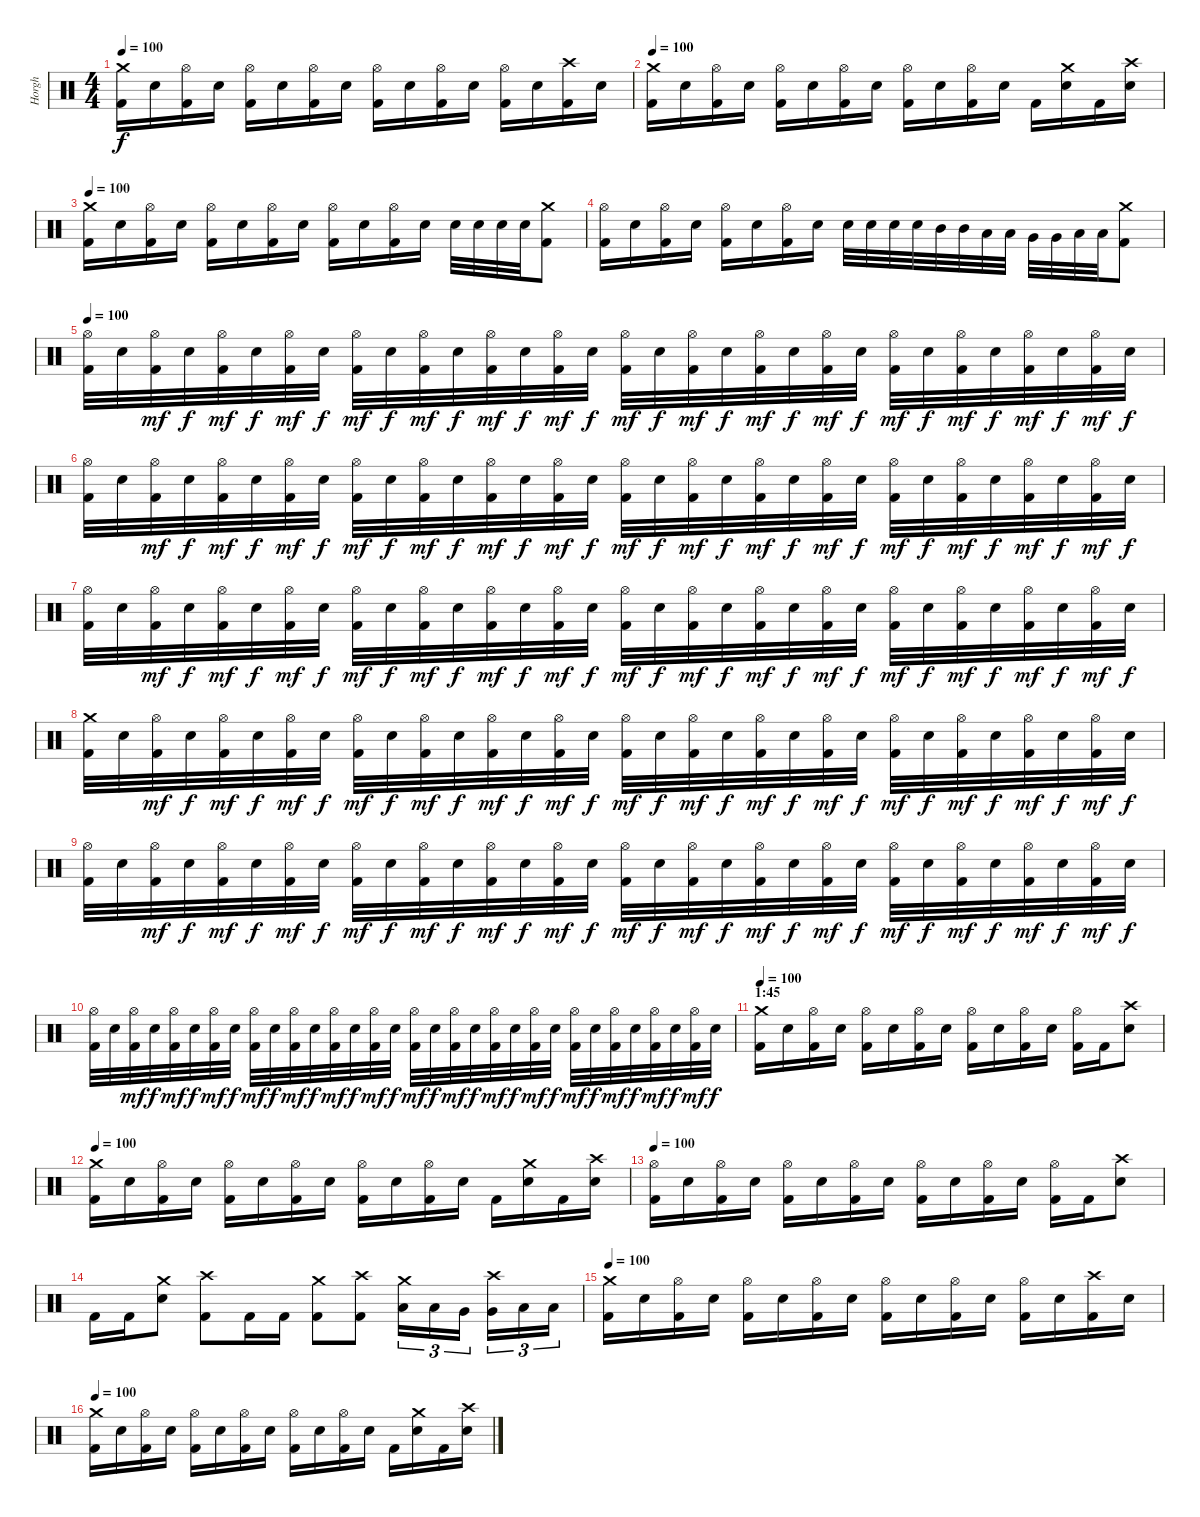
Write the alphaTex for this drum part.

\track ("Horgh" "Horgh") {instrument percussion}
\staff {score}
\articulation defaults
\ts (4 4)
\tempo 100
\clef neutral
\ks c
("Crash medium (hit)" "Kick (hit) 2").16{dy f} "Electric Snare (hit)".16 ("Hi-Hat (open)" "Kick (hit) 2").16 "Electric Snare (hit)".16 ("Hi-Hat (open)" "Kick (hit) 2").16 "Electric Snare (hit)".16 ("Hi-Hat (open)" "Kick (hit) 2").16 "Electric Snare (hit)".16 ("Hi-Hat (open)" "Kick (hit) 2").16 "Electric Snare (hit)".16 ("Hi-Hat (open)" "Kick (hit) 2").16 "Electric Snare (hit)".16 ("Hi-Hat (open)" "Kick (hit) 2").16 "Electric Snare (hit)".16 ("Crash high (hit)" "Kick (hit) 2").16 "Electric Snare (hit)".16 |
\tempo 100
("Crash medium (hit)" "Kick (hit) 2").16 "Electric Snare (hit)".16 ("Hi-Hat (open)" "Kick (hit) 2").16 "Electric Snare (hit)".16 ("Hi-Hat (open)" "Kick (hit) 2").16 "Electric Snare (hit)".16 ("Hi-Hat (open)" "Kick (hit) 2").16 "Electric Snare (hit)".16 ("Hi-Hat (open)" "Kick (hit) 2").16 "Electric Snare (hit)".16 ("Hi-Hat (open)" "Kick (hit) 2").16 "Electric Snare (hit)".16 "Kick (hit) 2".16 ("Crash medium (hit)" "Electric Snare (hit)").16 "Kick (hit) 2".16 ("Crash high (hit)" "Electric Snare (hit)").16 |
\tempo 100
("Crash medium (hit)" "Kick (hit) 2").16 "Electric Snare (hit)".16 ("Hi-Hat (open)" "Kick (hit) 2").16 "Electric Snare (hit)".16 ("Hi-Hat (open)" "Kick (hit) 2").16 "Electric Snare (hit)".16 ("Hi-Hat (open)" "Kick (hit) 2").16 "Electric Snare (hit)".16 ("Hi-Hat (open)" "Kick (hit) 2").16 "Electric Snare (hit)".16 ("Hi-Hat (open)" "Kick (hit) 2").16 "Electric Snare (hit)".16 "Electric Snare (hit)".32 "Electric Snare (hit)".32 "Electric Snare (hit)".32 "Electric Snare (hit)".32 ("Crash medium (hit)" "Kick (hit) 2").8 |
("Hi-Hat (open)" "Kick (hit) 2").16 "Electric Snare (hit)".16 ("Hi-Hat (open)" "Kick (hit) 2").16 "Electric Snare (hit)".16 ("Hi-Hat (open)" "Kick (hit) 2").16 "Electric Snare (hit)".16 ("Hi-Hat (open)" "Kick (hit) 2").16 "Electric Snare (hit)".16 "Electric Snare (hit)".32 "Electric Snare (hit)".32 "Electric Snare (hit)".32 "Electric Snare (hit)".32 "Mid Tom (hit)".32 "Mid Tom (hit)".32 "Low Tom (hit)".32 "Low Tom (hit)".32 "Very Low Tom (hit)".32 "Very Low Tom (hit)".32 "Low Floor Tom (hit)".32 "Low Floor Tom (hit)".32 ("Crash medium (hit)" "Kick (hit) 2").8 |
\tempo 100
("Hi-Hat (open)" "Kick (hit) 2").32 "Electric Snare (hit)".32 ("Hi-Hat (open)" "Kick (hit) 2").32{dy mf} "Electric Snare (hit)".32{dy f} ("Hi-Hat (open)" "Kick (hit) 2").32{dy mf} "Electric Snare (hit)".32{dy f} ("Hi-Hat (open)" "Kick (hit) 2").32{dy mf} "Electric Snare (hit)".32{dy f} ("Hi-Hat (open)" "Kick (hit) 2").32{dy mf} "Electric Snare (hit)".32{dy f} ("Hi-Hat (open)" "Kick (hit) 2").32{dy mf} "Electric Snare (hit)".32{dy f} ("Hi-Hat (open)" "Kick (hit) 2").32{dy mf} "Electric Snare (hit)".32{dy f} ("Hi-Hat (open)" "Kick (hit) 2").32{dy mf} "Electric Snare (hit)".32{dy f} ("Hi-Hat (open)" "Kick (hit) 2").32{dy mf} "Electric Snare (hit)".32{dy f} ("Hi-Hat (open)" "Kick (hit) 2").32{dy mf} "Electric Snare (hit)".32{dy f} ("Hi-Hat (open)" "Kick (hit) 2").32{dy mf} "Electric Snare (hit)".32{dy f} ("Hi-Hat (open)" "Kick (hit) 2").32{dy mf} "Electric Snare (hit)".32{dy f} ("Hi-Hat (open)" "Kick (hit) 2").32{dy mf} "Electric Snare (hit)".32{dy f} ("Hi-Hat (open)" "Kick (hit) 2").32{dy mf} "Electric Snare (hit)".32{dy f} ("Hi-Hat (open)" "Kick (hit) 2").32{dy mf} "Electric Snare (hit)".32{dy f} ("Hi-Hat (open)" "Kick (hit) 2").32{dy mf} "Electric Snare (hit)".32{dy f} |
("Hi-Hat (open)" "Kick (hit) 2").32 "Electric Snare (hit)".32 ("Hi-Hat (open)" "Kick (hit) 2").32{dy mf} "Electric Snare (hit)".32{dy f} ("Hi-Hat (open)" "Kick (hit) 2").32{dy mf} "Electric Snare (hit)".32{dy f} ("Hi-Hat (open)" "Kick (hit) 2").32{dy mf} "Electric Snare (hit)".32{dy f} ("Hi-Hat (open)" "Kick (hit) 2").32{dy mf} "Electric Snare (hit)".32{dy f} ("Hi-Hat (open)" "Kick (hit) 2").32{dy mf} "Electric Snare (hit)".32{dy f} ("Hi-Hat (open)" "Kick (hit) 2").32{dy mf} "Electric Snare (hit)".32{dy f} ("Hi-Hat (open)" "Kick (hit) 2").32{dy mf} "Electric Snare (hit)".32{dy f} ("Hi-Hat (open)" "Kick (hit) 2").32{dy mf} "Electric Snare (hit)".32{dy f} ("Hi-Hat (open)" "Kick (hit) 2").32{dy mf} "Electric Snare (hit)".32{dy f} ("Hi-Hat (open)" "Kick (hit) 2").32{dy mf} "Electric Snare (hit)".32{dy f} ("Hi-Hat (open)" "Kick (hit) 2").32{dy mf} "Electric Snare (hit)".32{dy f} ("Hi-Hat (open)" "Kick (hit) 2").32{dy mf} "Electric Snare (hit)".32{dy f} ("Hi-Hat (open)" "Kick (hit) 2").32{dy mf} "Electric Snare (hit)".32{dy f} ("Hi-Hat (open)" "Kick (hit) 2").32{dy mf} "Electric Snare (hit)".32{dy f} ("Hi-Hat (open)" "Kick (hit) 2").32{dy mf} "Electric Snare (hit)".32{dy f} |
("Hi-Hat (open)" "Kick (hit) 2").32 "Electric Snare (hit)".32 ("Hi-Hat (open)" "Kick (hit) 2").32{dy mf} "Electric Snare (hit)".32{dy f} ("Hi-Hat (open)" "Kick (hit) 2").32{dy mf} "Electric Snare (hit)".32{dy f} ("Hi-Hat (open)" "Kick (hit) 2").32{dy mf} "Electric Snare (hit)".32{dy f} ("Hi-Hat (open)" "Kick (hit) 2").32{dy mf} "Electric Snare (hit)".32{dy f} ("Hi-Hat (open)" "Kick (hit) 2").32{dy mf} "Electric Snare (hit)".32{dy f} ("Hi-Hat (open)" "Kick (hit) 2").32{dy mf} "Electric Snare (hit)".32{dy f} ("Hi-Hat (open)" "Kick (hit) 2").32{dy mf} "Electric Snare (hit)".32{dy f} ("Hi-Hat (open)" "Kick (hit) 2").32{dy mf} "Electric Snare (hit)".32{dy f} ("Hi-Hat (open)" "Kick (hit) 2").32{dy mf} "Electric Snare (hit)".32{dy f} ("Hi-Hat (open)" "Kick (hit) 2").32{dy mf} "Electric Snare (hit)".32{dy f} ("Hi-Hat (open)" "Kick (hit) 2").32{dy mf} "Electric Snare (hit)".32{dy f} ("Hi-Hat (open)" "Kick (hit) 2").32{dy mf} "Electric Snare (hit)".32{dy f} ("Hi-Hat (open)" "Kick (hit) 2").32{dy mf} "Electric Snare (hit)".32{dy f} ("Hi-Hat (open)" "Kick (hit) 2").32{dy mf} "Electric Snare (hit)".32{dy f} ("Hi-Hat (open)" "Kick (hit) 2").32{dy mf} "Electric Snare (hit)".32{dy f} |
("Crash medium (hit)" "Kick (hit) 2").32 "Electric Snare (hit)".32 ("Hi-Hat (open)" "Kick (hit) 2").32{dy mf} "Electric Snare (hit)".32{dy f} ("Hi-Hat (open)" "Kick (hit) 2").32{dy mf} "Electric Snare (hit)".32{dy f} ("Hi-Hat (open)" "Kick (hit) 2").32{dy mf} "Electric Snare (hit)".32{dy f} ("Hi-Hat (open)" "Kick (hit) 2").32{dy mf} "Electric Snare (hit)".32{dy f} ("Hi-Hat (open)" "Kick (hit) 2").32{dy mf} "Electric Snare (hit)".32{dy f} ("Hi-Hat (open)" "Kick (hit) 2").32{dy mf} "Electric Snare (hit)".32{dy f} ("Hi-Hat (open)" "Kick (hit) 2").32{dy mf} "Electric Snare (hit)".32{dy f} ("Hi-Hat (open)" "Kick (hit) 2").32{dy mf} "Electric Snare (hit)".32{dy f} ("Hi-Hat (open)" "Kick (hit) 2").32{dy mf} "Electric Snare (hit)".32{dy f} ("Hi-Hat (open)" "Kick (hit) 2").32{dy mf} "Electric Snare (hit)".32{dy f} ("Hi-Hat (open)" "Kick (hit) 2").32{dy mf} "Electric Snare (hit)".32{dy f} ("Hi-Hat (open)" "Kick (hit) 2").32{dy mf} "Electric Snare (hit)".32{dy f} ("Hi-Hat (open)" "Kick (hit) 2").32{dy mf} "Electric Snare (hit)".32{dy f} ("Hi-Hat (open)" "Kick (hit) 2").32{dy mf} "Electric Snare (hit)".32{dy f} ("Hi-Hat (open)" "Kick (hit) 2").32{dy mf} "Electric Snare (hit)".32{dy f} |
("Hi-Hat (open)" "Kick (hit) 2").32 "Electric Snare (hit)".32 ("Hi-Hat (open)" "Kick (hit) 2").32{dy mf} "Electric Snare (hit)".32{dy f} ("Hi-Hat (open)" "Kick (hit) 2").32{dy mf} "Electric Snare (hit)".32{dy f} ("Hi-Hat (open)" "Kick (hit) 2").32{dy mf} "Electric Snare (hit)".32{dy f} ("Hi-Hat (open)" "Kick (hit) 2").32{dy mf} "Electric Snare (hit)".32{dy f} ("Hi-Hat (open)" "Kick (hit) 2").32{dy mf} "Electric Snare (hit)".32{dy f} ("Hi-Hat (open)" "Kick (hit) 2").32{dy mf} "Electric Snare (hit)".32{dy f} ("Hi-Hat (open)" "Kick (hit) 2").32{dy mf} "Electric Snare (hit)".32{dy f} ("Hi-Hat (open)" "Kick (hit) 2").32{dy mf} "Electric Snare (hit)".32{dy f} ("Hi-Hat (open)" "Kick (hit) 2").32{dy mf} "Electric Snare (hit)".32{dy f} ("Hi-Hat (open)" "Kick (hit) 2").32{dy mf} "Electric Snare (hit)".32{dy f} ("Hi-Hat (open)" "Kick (hit) 2").32{dy mf} "Electric Snare (hit)".32{dy f} ("Hi-Hat (open)" "Kick (hit) 2").32{dy mf} "Electric Snare (hit)".32{dy f} ("Hi-Hat (open)" "Kick (hit) 2").32{dy mf} "Electric Snare (hit)".32{dy f} ("Hi-Hat (open)" "Kick (hit) 2").32{dy mf} "Electric Snare (hit)".32{dy f} ("Hi-Hat (open)" "Kick (hit) 2").32{dy mf} "Electric Snare (hit)".32{dy f} |
("Hi-Hat (open)" "Kick (hit) 2").32 "Electric Snare (hit)".32 ("Hi-Hat (open)" "Kick (hit) 2").32{dy mf} "Electric Snare (hit)".32{dy f} ("Hi-Hat (open)" "Kick (hit) 2").32{dy mf} "Electric Snare (hit)".32{dy f} ("Hi-Hat (open)" "Kick (hit) 2").32{dy mf} "Electric Snare (hit)".32{dy f} ("Hi-Hat (open)" "Kick (hit) 2").32{dy mf} "Electric Snare (hit)".32{dy f} ("Hi-Hat (open)" "Kick (hit) 2").32{dy mf} "Electric Snare (hit)".32{dy f} ("Hi-Hat (open)" "Kick (hit) 2").32{dy mf} "Electric Snare (hit)".32{dy f} ("Hi-Hat (open)" "Kick (hit) 2").32{dy mf} "Electric Snare (hit)".32{dy f} ("Hi-Hat (open)" "Kick (hit) 2").32{dy mf} "Electric Snare (hit)".32{dy f} ("Hi-Hat (open)" "Kick (hit) 2").32{dy mf} "Electric Snare (hit)".32{dy f} ("Hi-Hat (open)" "Kick (hit) 2").32{dy mf} "Electric Snare (hit)".32{dy f} ("Hi-Hat (open)" "Kick (hit) 2").32{dy mf} "Electric Snare (hit)".32{dy f} ("Hi-Hat (open)" "Kick (hit) 2").32{dy mf} "Electric Snare (hit)".32{dy f} ("Hi-Hat (open)" "Kick (hit) 2").32{dy mf} "Electric Snare (hit)".32{dy f} ("Hi-Hat (open)" "Kick (hit) 2").32{dy mf} "Electric Snare (hit)".32{dy f} ("Hi-Hat (open)" "Kick (hit) 2").32{dy mf} "Electric Snare (hit)".32{dy f} |
\section ("" "1:45")
\tempo 100
("Crash medium (hit)" "Kick (hit) 2").16 "Electric Snare (hit)".16 ("Hi-Hat (open)" "Kick (hit) 2").16 "Electric Snare (hit)".16 ("Hi-Hat (open)" "Kick (hit) 2").16 "Electric Snare (hit)".16 ("Hi-Hat (open)" "Kick (hit) 2").16 "Electric Snare (hit)".16 ("Hi-Hat (open)" "Kick (hit) 2").16 "Electric Snare (hit)".16 ("Hi-Hat (open)" "Kick (hit) 2").16 "Electric Snare (hit)".16 ("Hi-Hat (open)" "Kick (hit) 2").16 "Kick (hit) 2".16 ("Crash high (hit)" "Electric Snare (hit)").8 |
\tempo 100
("Crash medium (hit)" "Kick (hit) 2").16 "Electric Snare (hit)".16 ("Hi-Hat (open)" "Kick (hit) 2").16 "Electric Snare (hit)".16 ("Hi-Hat (open)" "Kick (hit) 2").16 "Electric Snare (hit)".16 ("Hi-Hat (open)" "Kick (hit) 2").16 "Electric Snare (hit)".16 ("Hi-Hat (open)" "Kick (hit) 2").16 "Electric Snare (hit)".16 ("Hi-Hat (open)" "Kick (hit) 2").16 "Electric Snare (hit)".16 "Kick (hit) 2".16 ("Crash medium (hit)" "Electric Snare (hit)").16 "Kick (hit) 2".16 ("Crash high (hit)" "Electric Snare (hit)").16 |
\tempo 100
("Hi-Hat (open)" "Kick (hit) 2").16 "Electric Snare (hit)".16 ("Hi-Hat (open)" "Kick (hit) 2").16 "Electric Snare (hit)".16 ("Hi-Hat (open)" "Kick (hit) 2").16 "Electric Snare (hit)".16 ("Hi-Hat (open)" "Kick (hit) 2").16 "Electric Snare (hit)".16 ("Hi-Hat (open)" "Kick (hit) 2").16 "Electric Snare (hit)".16 ("Hi-Hat (open)" "Kick (hit) 2").16 "Electric Snare (hit)".16 ("Hi-Hat (open)" "Kick (hit) 2").16 "Kick (hit) 2".16 ("Crash high (hit)" "Electric Snare (hit)").8 |
"Kick (hit) 2".16 "Kick (hit) 2".16 ("Crash medium (hit)" "Electric Snare (hit)").8 ("Crash high (hit)" "Kick (hit) 2").8 "Kick (hit) 2".16 "Kick (hit) 2".16 ("Crash medium (hit)" "Kick (hit) 2").8 ("Crash high (hit)" "Kick (hit) 2").8 ("Crash medium (hit)" "Low Tom (hit)").16{tu (3 2)} "Low Tom (hit)".16{tu (3 2)} "Very Low Tom (hit)".16{tu (3 2)} ("Crash high (hit)" "Very Low Tom (hit)").16{tu (3 2)} "Low Floor Tom (hit)".16{tu (3 2)} "Low Floor Tom (hit)".16{tu (3 2)} |
\tempo 100
("Crash medium (hit)" "Kick (hit) 2").16 "Electric Snare (hit)".16 ("Hi-Hat (open)" "Kick (hit) 2").16 "Electric Snare (hit)".16 ("Hi-Hat (open)" "Kick (hit) 2").16 "Electric Snare (hit)".16 ("Hi-Hat (open)" "Kick (hit) 2").16 "Electric Snare (hit)".16 ("Hi-Hat (open)" "Kick (hit) 2").16 "Electric Snare (hit)".16 ("Hi-Hat (open)" "Kick (hit) 2").16 "Electric Snare (hit)".16 ("Hi-Hat (open)" "Kick (hit) 2").16 "Electric Snare (hit)".16 ("Crash high (hit)" "Kick (hit) 2").16 "Electric Snare (hit)".16 |
\tempo 100
("Crash medium (hit)" "Kick (hit) 2").16 "Electric Snare (hit)".16 ("Hi-Hat (open)" "Kick (hit) 2").16 "Electric Snare (hit)".16 ("Hi-Hat (open)" "Kick (hit) 2").16 "Electric Snare (hit)".16 ("Hi-Hat (open)" "Kick (hit) 2").16 "Electric Snare (hit)".16 ("Hi-Hat (open)" "Kick (hit) 2").16 "Electric Snare (hit)".16 ("Hi-Hat (open)" "Kick (hit) 2").16 "Electric Snare (hit)".16 "Kick (hit) 2".16 ("Crash medium (hit)" "Electric Snare (hit)").16 "Kick (hit) 2".16 ("Crash high (hit)" "Electric Snare (hit)").16
